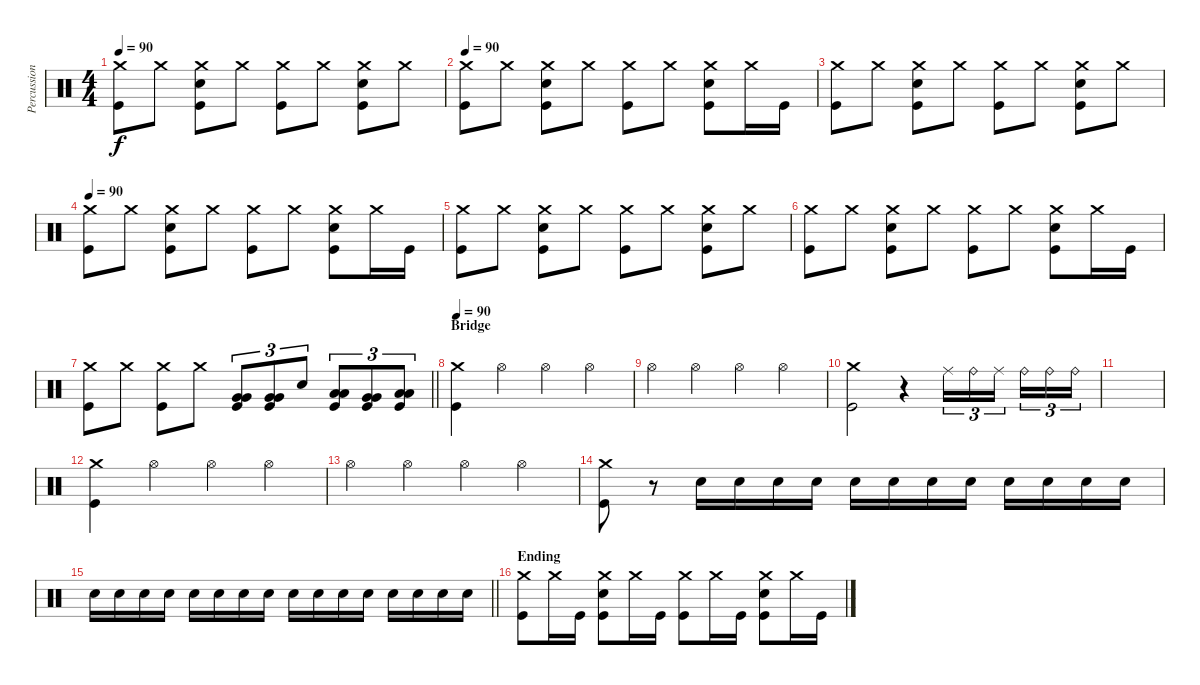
\track ("Percussions" "Percussion") {instrument percussion}
\staff {score}
\articulation defaults
\ts (4 4)
\tempo 90
\clef neutral
\ks c
("Crash medium (hit)" "Kick (hit)").8{dy f} "Crash medium (hit)".8 ("Crash medium (hit)" "Electric Snare (hit)" "Kick (hit)").8 "Crash medium (hit)".8 ("Crash medium (hit)" "Kick (hit)").8 "Crash medium (hit)".8 ("Crash medium (hit)" "Electric Snare (hit)" "Kick (hit)").8 "Crash medium (hit)".8 |
\tempo 90
("Crash medium (hit)" "Kick (hit)").8 "Crash medium (hit)".8 ("Crash medium (hit)" "Electric Snare (hit)" "Kick (hit)").8 "Crash medium (hit)".8 ("Crash medium (hit)" "Kick (hit)").8 "Crash medium (hit)".8 ("Crash medium (hit)" "Electric Snare (hit)" "Kick (hit)").8 "Crash medium (hit)".16 "Kick (hit)".16 |
("Crash medium (hit)" "Kick (hit)").8 "Crash medium (hit)".8 ("Crash medium (hit)" "Electric Snare (hit)" "Kick (hit)").8 "Crash medium (hit)".8 ("Crash medium (hit)" "Kick (hit)").8 "Crash medium (hit)".8 ("Crash medium (hit)" "Electric Snare (hit)" "Kick (hit)").8 "Crash medium (hit)".8 |
\tempo 90
("Crash medium (hit)" "Kick (hit)").8 "Crash medium (hit)".8 ("Crash medium (hit)" "Electric Snare (hit)" "Kick (hit)").8 "Crash medium (hit)".8 ("Crash medium (hit)" "Kick (hit)").8 "Crash medium (hit)".8 ("Crash medium (hit)" "Electric Snare (hit)" "Kick (hit)").8 "Crash medium (hit)".16 "Kick (hit)".16 |
("Crash medium (hit)" "Kick (hit)").8 "Crash medium (hit)".8 ("Crash medium (hit)" "Electric Snare (hit)" "Kick (hit)").8 "Crash medium (hit)".8 ("Crash medium (hit)" "Kick (hit)").8 "Crash medium (hit)".8 ("Crash medium (hit)" "Electric Snare (hit)" "Kick (hit)").8 "Crash medium (hit)".8 |
("Crash medium (hit)" "Kick (hit)").8 "Crash medium (hit)".8 ("Crash medium (hit)" "Electric Snare (hit)" "Kick (hit)").8 "Crash medium (hit)".8 ("Crash medium (hit)" "Kick (hit)").8 "Crash medium (hit)".8 ("Crash medium (hit)" "Electric Snare (hit)" "Kick (hit)").8 "Crash medium (hit)".16 "Kick (hit)".16 |
\barLineRight lightlight
("Crash medium (hit)" "Kick (hit)").8 "Crash medium (hit)".8 ("Crash medium (hit)" "Kick (hit)").8 "Crash medium (hit)".8 ("Very Low Tom (hit)" "Very Low Tom (hit)" "Kick (hit)").8{tu (3 2)} ("Very Low Tom (hit)" "Very Low Tom (hit)" "Kick (hit)").8{tu (3 2)} "Electric Snare (hit)".8{tu (3 2)} ("Low Tom (hit)" "Low Tom (hit)" "Kick (hit)").8{tu (3 2)} ("Very Low Tom (hit)" "Very Low Tom (hit)" "Kick (hit)").8{tu (3 2)} ("Low Floor Tom (hit)" "Low Floor Tom (hit)" "Kick (hit)").8{tu (3 2)} |
\section ("" "Bridge")
\tempo 90
("Crash medium (hit)" "Kick (hit)").4 "Hi-Hat (open)".4{volume 8} "Hi-Hat (open)".4 "Hi-Hat (open)".4 |
"Hi-Hat (open)".4 "Hi-Hat (open)".4 "Hi-Hat (open)".4 "Hi-Hat (open)".4 |
("Crash medium (hit)" "Kick (hit)").2{volume 16} r.4 "Ride (middle)".16{tu (3 2)} "Ride (bell)".16{tu (3 2)} "Ride (middle)".16{tu (3 2) beam splitsecondary} "Ride (bell)".16{tu (3 2)} "Ride (bell)".16{tu (3 2)} "Ride (bell)".16{tu (3 2)} |
|
("Crash medium (hit)" "Kick (hit)").4 "Hi-Hat (open)".4 "Hi-Hat (open)".4 "Hi-Hat (open)".4 |
"Hi-Hat (open)".4 "Hi-Hat (open)".4 "Hi-Hat (open)".4 "Hi-Hat (open)".4 |
("Crash medium (hit)" "Kick (hit)").8 r.8{volume 8} "Electric Snare (hit)".16{volume 16} "Electric Snare (hit)".16 "Electric Snare (hit)".16 "Electric Snare (hit)".16 "Electric Snare (hit)".16 "Electric Snare (hit)".16 "Electric Snare (hit)".16 "Electric Snare (hit)".16 "Electric Snare (hit)".16 "Electric Snare (hit)".16 "Electric Snare (hit)".16 "Electric Snare (hit)".16 |
\barLineRight lightlight "Electric Snare (hit)".16 "Electric Snare (hit)".16 "Electric Snare (hit)".16 "Electric Snare (hit)".16 "Electric Snare (hit)".16 "Electric Snare (hit)".16 "Electric Snare (hit)".16 "Electric Snare (hit)".16 "Electric Snare (hit)".16 "Electric Snare (hit)".16 "Electric Snare (hit)".16 "Electric Snare (hit)".16 "Electric Snare (hit)".16 "Electric Snare (hit)".16 "Electric Snare (hit)".16 "Electric Snare (hit)".16
|
\section ("" "Ending")
("Crash medium (hit)" "Kick (hit)").8 "Crash medium (hit)".16 "Kick (hit)".16 ("Crash medium (hit)" "Electric Snare (hit)" "Kick (hit)").8 "Crash medium (hit)".16 "Kick (hit)".16 ("Crash medium (hit)" "Kick (hit)").8 "Crash medium (hit)".16 "Kick (hit)".16 ("Crash medium (hit)" "Electric Snare (hit)" "Kick (hit)").8 "Crash medium (hit)".16 "Kick (hit)".16
